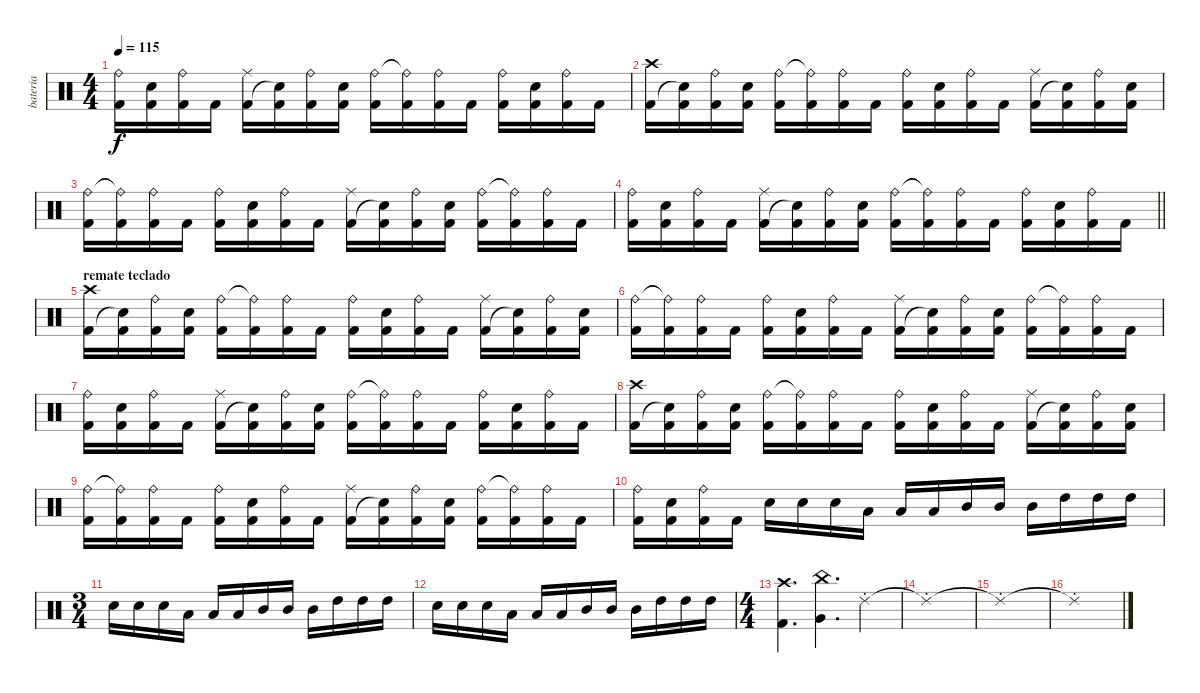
\track ("bateria" "bateria") {instrument percussion}
\staff {score}
\articulation defaults
\ts (4 4)
\tempo 115
\clef neutral
\ks c
("Ride (bell)" "Kick (hit) 2").16{dy f} ("Electric Snare (hit)" "Kick (hit) 2").16 ("Kick (hit) 2" "Ride (bell)").16 "Kick (hit) 2".16 ("Ride (middle)" "Kick (hit) 2").16 ("Kick (hit) 2" "Snare (hit)"{t}).16 ("Ride (bell)" "Kick (hit) 2").16 ("Electric Snare (hit)" "Kick (hit) 2").16 ("Ride (bell)" "Kick (hit) 2").16 ("Ride (bell)"{t} "Kick (hit) 2").16 ("Kick (hit) 2" "Ride (bell)").16 "Kick (hit) 2".16 ("Kick (hit) 2" "Ride (bell)").16 ("Kick (hit) 2" "Electric Snare (hit)").16 ("Kick (hit) 2" "Ride (bell)").16 "Kick (hit) 2".16 |
("Crash high (hit)" "Kick (hit) 2").16 ("Kick (hit) 2" "Snare (hit)"{t}).16 ("Ride (bell)" "Kick (hit) 2").16 ("Electric Snare (hit)" "Kick (hit) 2").16 ("Ride (bell)" "Kick (hit) 2").16 ("Ride (bell)"{t} "Kick (hit) 2").16 ("Kick (hit) 2" "Ride (bell)").16 "Kick (hit) 2".16 ("Ride (bell)" "Kick (hit) 2").16 ("Electric Snare (hit)" "Kick (hit) 2").16 ("Kick (hit) 2" "Ride (bell)").16 "Kick (hit) 2".16 ("Ride (middle)" "Kick (hit) 2").16 ("Kick (hit) 2" "Snare (hit)"{t}).16 ("Ride (bell)" "Kick (hit) 2").16 ("Electric Snare (hit)" "Kick (hit) 2").16 |
("Ride (bell)" "Kick (hit) 2").16 ("Ride (bell)"{t} "Kick (hit) 2").16 ("Kick (hit) 2" "Ride (bell)").16 "Kick (hit) 2".16 ("Ride (bell)" "Kick (hit) 2").16 ("Electric Snare (hit)" "Kick (hit) 2").16 ("Kick (hit) 2" "Ride (bell)").16 "Kick (hit) 2".16 ("Ride (middle)" "Kick (hit) 2").16 ("Kick (hit) 2" "Snare (hit)"{t}).16 ("Ride (bell)" "Kick (hit) 2").16 ("Electric Snare (hit)" "Kick (hit) 2").16 ("Ride (bell)" "Kick (hit) 2").16 ("Ride (bell)"{t} "Kick (hit) 2").16 ("Kick (hit) 2" "Ride (bell)").16 "Kick (hit) 2".16 |
\barLineRight lightlight
("Ride (bell)" "Kick (hit) 2").16 ("Electric Snare (hit)" "Kick (hit) 2").16 ("Kick (hit) 2" "Ride (bell)").16 "Kick (hit) 2".16 ("Ride (middle)" "Kick (hit) 2").16 ("Kick (hit) 2" "Snare (hit)"{t}).16 ("Ride (bell)" "Kick (hit) 2").16 ("Electric Snare (hit)" "Kick (hit) 2").16 ("Ride (bell)" "Kick (hit) 2").16 ("Ride (bell)"{t} "Kick (hit) 2").16 ("Kick (hit) 2" "Ride (bell)").16 "Kick (hit) 2".16 ("Kick (hit) 2" "Ride (bell)").16 ("Kick (hit) 2" "Electric Snare (hit)").16 ("Kick (hit) 2" "Ride (bell)").16 "Kick (hit) 2".16 |
\section ("" "remate teclado")
("Crash high (hit)" "Kick (hit) 2").16 ("Kick (hit) 2" "Snare (hit)"{t}).16 ("Ride (bell)" "Kick (hit) 2").16 ("Electric Snare (hit)" "Kick (hit) 2").16 ("Ride (bell)" "Kick (hit) 2").16 ("Ride (bell)"{t} "Kick (hit) 2").16 ("Kick (hit) 2" "Ride (bell)").16 "Kick (hit) 2".16 ("Ride (bell)" "Kick (hit) 2").16 ("Electric Snare (hit)" "Kick (hit) 2").16 ("Kick (hit) 2" "Ride (bell)").16 "Kick (hit) 2".16 ("Ride (middle)" "Kick (hit) 2").16 ("Kick (hit) 2" "Snare (hit)"{t}).16 ("Ride (bell)" "Kick (hit) 2").16 ("Electric Snare (hit)" "Kick (hit) 2").16 |
("Ride (bell)" "Kick (hit) 2").16 ("Ride (bell)"{t} "Kick (hit) 2").16 ("Kick (hit) 2" "Ride (bell)").16 "Kick (hit) 2".16 ("Ride (bell)" "Kick (hit) 2").16 ("Electric Snare (hit)" "Kick (hit) 2").16 ("Kick (hit) 2" "Ride (bell)").16 "Kick (hit) 2".16 ("Ride (middle)" "Kick (hit) 2").16 ("Kick (hit) 2" "Snare (hit)"{t}).16 ("Ride (bell)" "Kick (hit) 2").16 ("Electric Snare (hit)" "Kick (hit) 2").16 ("Ride (bell)" "Kick (hit) 2").16 ("Ride (bell)"{t} "Kick (hit) 2").16 ("Kick (hit) 2" "Ride (bell)").16 "Kick (hit) 2".16 |
("Ride (bell)" "Kick (hit) 2").16 ("Electric Snare (hit)" "Kick (hit) 2").16 ("Kick (hit) 2" "Ride (bell)").16 "Kick (hit) 2".16 ("Ride (middle)" "Kick (hit) 2").16 ("Kick (hit) 2" "Snare (hit)"{t}).16 ("Ride (bell)" "Kick (hit) 2").16 ("Electric Snare (hit)" "Kick (hit) 2").16 ("Ride (bell)" "Kick (hit) 2").16 ("Ride (bell)"{t} "Kick (hit) 2").16 ("Kick (hit) 2" "Ride (bell)").16 "Kick (hit) 2".16 ("Kick (hit) 2" "Ride (bell)").16 ("Kick (hit) 2" "Electric Snare (hit)").16 ("Kick (hit) 2" "Ride (bell)").16 "Kick (hit) 2".16 |
("Crash high (hit)" "Kick (hit) 2").16 ("Kick (hit) 2" "Snare (hit)"{t}).16 ("Ride (bell)" "Kick (hit) 2").16 ("Electric Snare (hit)" "Kick (hit) 2").16 ("Ride (bell)" "Kick (hit) 2").16 ("Ride (bell)"{t} "Kick (hit) 2").16 ("Kick (hit) 2" "Ride (bell)").16 "Kick (hit) 2".16 ("Ride (bell)" "Kick (hit) 2").16 ("Electric Snare (hit)" "Kick (hit) 2").16 ("Kick (hit) 2" "Ride (bell)").16 "Kick (hit) 2".16 ("Ride (middle)" "Kick (hit) 2").16 ("Kick (hit) 2" "Snare (hit)"{t}).16 ("Ride (bell)" "Kick (hit) 2").16 ("Electric Snare (hit)" "Kick (hit) 2").16 |
("Ride (bell)" "Kick (hit) 2").16 ("Ride (bell)"{t} "Kick (hit) 2").16 ("Kick (hit) 2" "Ride (bell)").16 "Kick (hit) 2".16 ("Ride (bell)" "Kick (hit) 2").16 ("Electric Snare (hit)" "Kick (hit) 2").16 ("Kick (hit) 2" "Ride (bell)").16 "Kick (hit) 2".16 ("Ride (middle)" "Kick (hit) 2").16 ("Kick (hit) 2" "Snare (hit)"{t}).16 ("Ride (bell)" "Kick (hit) 2").16 ("Electric Snare (hit)" "Kick (hit) 2").16 ("Ride (bell)" "Kick (hit) 2").16 ("Ride (bell)"{t} "Kick (hit) 2").16 ("Kick (hit) 2" "Ride (bell)").16 "Kick (hit) 2".16 |
("Ride (bell)" "Kick (hit) 2").16 ("Electric Snare (hit)" "Kick (hit) 2").16 ("Kick (hit) 2" "Ride (bell)").16 "Kick (hit) 2".16 "Snare (hit) 2".16 "Snare (hit) 2".16 "Snare (hit) 2".16 "Low Tom (hit)".16 "Low Tom (hit)".16 "Low Tom (hit)".16 "Mid Tom (hit)".16 "Mid Tom (hit)".16 "Mid Tom (hit)".16 "High Tom (hit)".16 "High Tom (hit)".16 "High Tom (hit)".16 |
\ts (3 4)
"Snare (hit) 2".16 "Snare (hit) 2".16 "Snare (hit) 2".16 "Low Tom (hit)".16 "Low Tom (hit)".16 "Low Tom (hit)".16 "Mid Tom (hit)".16 "Mid Tom (hit)".16 "Mid Tom (hit)".16 "High Tom (hit)".16 "High Tom (hit)".16 "High Tom (hit)".16 |
"Snare (hit) 2".16 "Snare (hit) 2".16 "Snare (hit) 2".16 "Low Tom (hit)".16 "Low Tom (hit)".16 "Low Tom (hit)".16 "Mid Tom (hit)".16 "Mid Tom (hit)".16 "Mid Tom (hit)".16 "High Tom (hit)".16 "High Tom (hit)".16 "High Tom (hit)".16 |
\ts (4 4)
("Crash high (hit)" "Kick (hit) 2").4{d} ("China (hit)" "Very Low Tom (hit)").4{d} "Ride (choke) 2".4 |
"Ride (choke) 2"{t}.1 |
"Ride (choke) 2"{t}.1 |
"Ride (choke) 2"{t}.1
